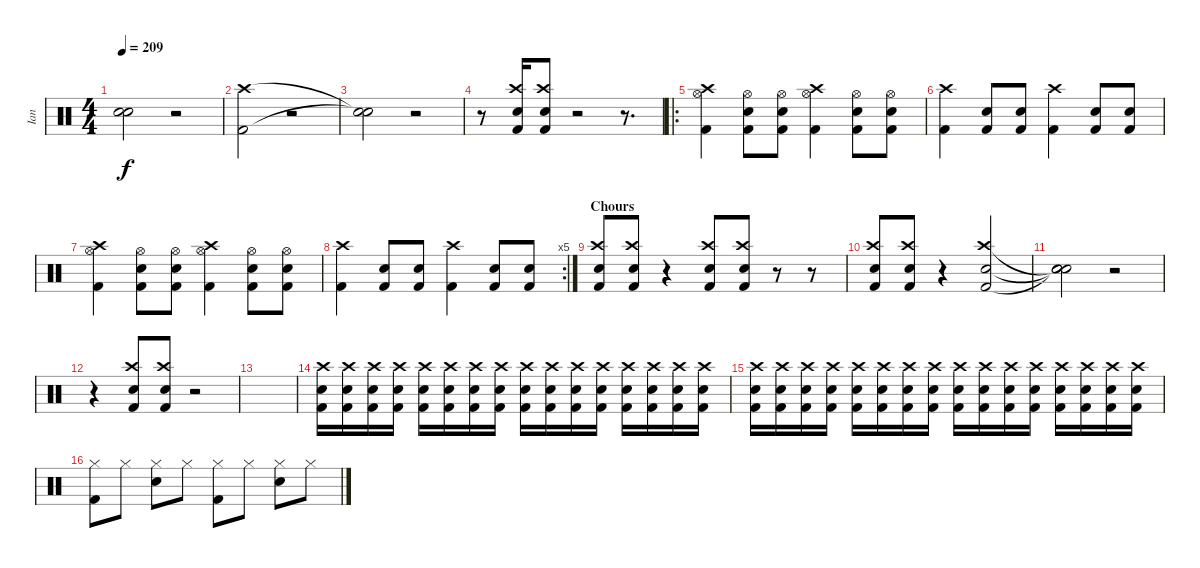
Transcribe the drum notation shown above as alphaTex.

\track ("Ian" "Ian") {instrument percussion}
\staff {score}
\articulation defaults
\ts (4 4)
\tempo 209
\clef neutral
\ks c
("Snare (hit)"{t} "Snare (hit)"{t}).2{dy f} r.2 |
("Kick (hit) 2" "Crash high (hit)").2 r.2 |
("Snare (hit)"{t} "Snare (hit)"{t}).2 r.2 |
r.8 ("Electric Snare (hit)" "Crash high (hit)" "Kick (hit) 2").16 ("Electric Snare (hit)" "Crash high (hit)" "Kick (hit) 2").8 r.2 r.8{d} |
\ro
("Hi-Hat (open)" "Crash high (hit)" "Kick (hit) 2").4 ("Electric Snare (hit)" "Hi-Hat (open)" "Kick (hit) 2").8 ("Electric Snare (hit)" "Hi-Hat (open)" "Kick (hit) 2").8 ("Hi-Hat (open)" "Crash high (hit)" "Kick (hit) 2").4 ("Electric Snare (hit)" "Hi-Hat (open)" "Kick (hit) 2").8 ("Electric Snare (hit)" "Hi-Hat (open)" "Kick (hit) 2").8 |
("Crash high (hit)" "Kick (hit) 2").4 ("Electric Snare (hit)" "Kick (hit) 2").8 ("Electric Snare (hit)" "Kick (hit) 2").8 ("Crash high (hit)" "Kick (hit) 2").4 ("Electric Snare (hit)" "Kick (hit) 2").8 ("Electric Snare (hit)" "Kick (hit) 2").8 |
("Hi-Hat (open)" "Crash high (hit)" "Kick (hit) 2").4 ("Electric Snare (hit)" "Hi-Hat (open)" "Kick (hit) 2").8 ("Electric Snare (hit)" "Hi-Hat (open)" "Kick (hit) 2").8 ("Hi-Hat (open)" "Crash high (hit)" "Kick (hit) 2").4 ("Electric Snare (hit)" "Hi-Hat (open)" "Kick (hit) 2").8 ("Electric Snare (hit)" "Hi-Hat (open)" "Kick (hit) 2").8 |
\rc 5
("Crash high (hit)" "Kick (hit) 2").4 ("Electric Snare (hit)" "Kick (hit) 2").8 ("Electric Snare (hit)" "Kick (hit) 2").8 ("Crash high (hit)" "Kick (hit) 2").4 ("Electric Snare (hit)" "Kick (hit) 2").8 ("Electric Snare (hit)" "Kick (hit) 2").8 |
\section ("" "Chours")
("Crash high (hit)" "Electric Snare (hit)" "Kick (hit) 2").8 ("Crash high (hit)" "Electric Snare (hit)" "Kick (hit) 2").8 r.4 ("Crash high (hit)" "Electric Snare (hit)" "Kick (hit) 2").8 ("Crash high (hit)" "Electric Snare (hit)" "Kick (hit) 2").8 r.8 r.8 |
("Crash high (hit)" "Electric Snare (hit)" "Kick (hit) 2").8 ("Crash high (hit)" "Electric Snare (hit)" "Kick (hit) 2").8 r.4 ("Electric Snare (hit)" "Crash high (hit)" "Kick (hit) 2").2 |
("Snare (hit)"{t} "Snare (hit)"{t} "Snare (hit)"{t}).2 r.2 |
r.4 ("Crash high (hit)" "Electric Snare (hit)" "Kick (hit) 2").8 ("Crash high (hit)" "Electric Snare (hit)" "Kick (hit) 2").8 r.2 |
|
("Crash high (hit)" "Snare (hit) 2" "Kick (hit) 2").16 ("Crash high (hit)" "Snare (hit) 2" "Kick (hit) 2").16 ("Crash high (hit)" "Snare (hit) 2" "Kick (hit) 2").16 ("Crash high (hit)" "Snare (hit) 2" "Kick (hit) 2").16 ("Crash high (hit)" "Snare (hit) 2" "Kick (hit) 2").16 ("Crash high (hit)" "Snare (hit) 2" "Kick (hit) 2").16 ("Crash high (hit)" "Snare (hit) 2" "Kick (hit) 2").16 ("Crash high (hit)" "Snare (hit) 2" "Kick (hit) 2").16 ("Crash high (hit)" "Snare (hit) 2" "Kick (hit) 2").16 ("Crash high (hit)" "Snare (hit) 2" "Kick (hit) 2").16 ("Crash high (hit)" "Snare (hit) 2" "Kick (hit) 2").16 ("Crash high (hit)" "Snare (hit) 2" "Kick (hit) 2").16 ("Crash high (hit)" "Snare (hit) 2" "Kick (hit) 2").16 ("Crash high (hit)" "Snare (hit) 2" "Kick (hit) 2").16 ("Crash high (hit)" "Snare (hit) 2" "Kick (hit) 2").16 ("Crash high (hit)" "Snare (hit) 2" "Kick (hit) 2").16 |
("Crash high (hit)" "Snare (hit) 2" "Kick (hit) 2").16 ("Crash high (hit)" "Snare (hit) 2" "Kick (hit) 2").16 ("Crash high (hit)" "Snare (hit) 2" "Kick (hit) 2").16 ("Crash high (hit)" "Snare (hit) 2" "Kick (hit) 2").16 ("Crash high (hit)" "Snare (hit) 2" "Kick (hit) 2").16 ("Crash high (hit)" "Snare (hit) 2" "Kick (hit) 2").16 ("Crash high (hit)" "Snare (hit) 2" "Kick (hit) 2").16 ("Crash high (hit)" "Snare (hit) 2" "Kick (hit) 2").16 ("Crash high (hit)" "Snare (hit) 2" "Kick (hit) 2").16 ("Crash high (hit)" "Snare (hit) 2" "Kick (hit) 2").16 ("Crash high (hit)" "Snare (hit) 2" "Kick (hit) 2").16 ("Crash high (hit)" "Snare (hit) 2" "Kick (hit) 2").16 ("Crash high (hit)" "Snare (hit) 2" "Kick (hit) 2").16 ("Crash high (hit)" "Snare (hit) 2" "Kick (hit) 2").16 ("Crash high (hit)" "Snare (hit) 2" "Kick (hit) 2").16 ("Crash high (hit)" "Snare (hit) 2" "Kick (hit) 2").16 |
("Hi-Hat (closed)" "Kick (hit) 2").8 "Hi-Hat (closed)".8 ("Hi-Hat (closed)" "Electric Snare (hit)").8 "Hi-Hat (closed)".8 ("Hi-Hat (closed)" "Kick (hit) 2").8 "Hi-Hat (closed)".8 ("Hi-Hat (closed)" "Electric Snare (hit)").8 "Hi-Hat (closed)".8
